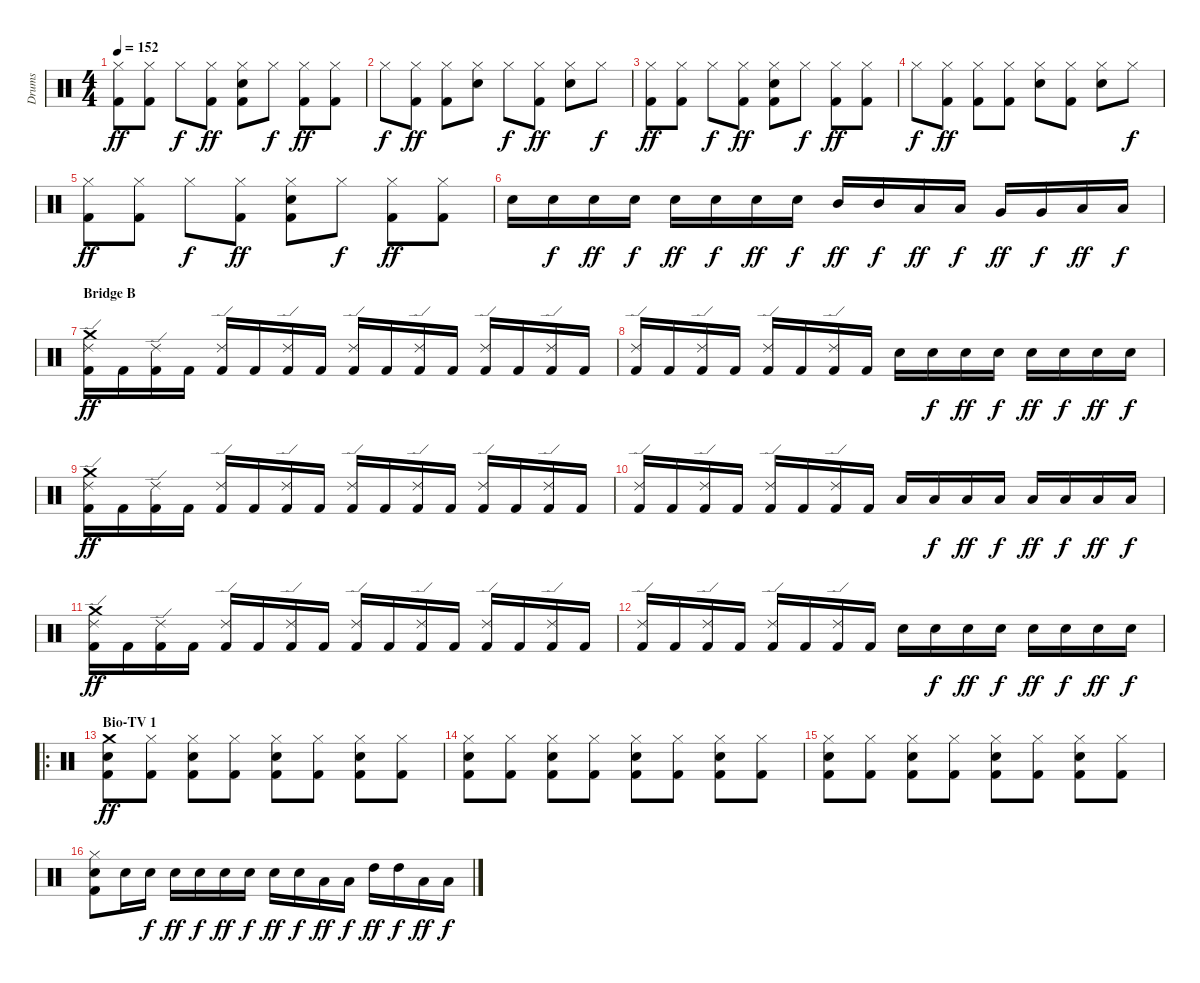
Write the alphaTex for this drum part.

\track ("Drums" "Drums") {instrument percussion}
\staff {score}
\articulation defaults
\ts (4 4)
\tempo 152
\clef neutral
\ks c
("Hi-Hat (closed)" "Kick (hit) 2").8{dy ff} ("Hi-Hat (closed)" "Kick (hit) 2").8 "Hi-Hat (closed)".8{dy f} ("Hi-Hat (closed)" "Kick (hit) 2").8{dy ff} ("Hi-Hat (closed)" "Electric Snare (hit)" "Kick (hit) 2").8 "Hi-Hat (closed)".8{dy f} ("Hi-Hat (closed)" "Kick (hit) 2").8{dy ff} ("Hi-Hat (closed)" "Kick (hit) 2").8 |
"Hi-Hat (closed)".8{dy f} ("Hi-Hat (closed)" "Kick (hit) 2").8{dy ff} ("Hi-Hat (closed)" "Kick (hit) 2").8 ("Hi-Hat (closed)" "Electric Snare (hit)").8 "Hi-Hat (closed)".8{dy f} ("Hi-Hat (closed)" "Kick (hit) 2").8{dy ff} ("Hi-Hat (closed)" "Electric Snare (hit)").8 "Hi-Hat (closed)".8{dy f} |
("Hi-Hat (closed)" "Kick (hit) 2").8{dy ff} ("Hi-Hat (closed)" "Kick (hit) 2").8 "Hi-Hat (closed)".8{dy f} ("Hi-Hat (closed)" "Kick (hit) 2").8{dy ff} ("Hi-Hat (closed)" "Electric Snare (hit)" "Kick (hit) 2").8 "Hi-Hat (closed)".8{dy f} ("Hi-Hat (closed)" "Kick (hit) 2").8{dy ff} ("Hi-Hat (closed)" "Kick (hit) 2").8 |
"Hi-Hat (closed)".8{dy f} ("Hi-Hat (closed)" "Kick (hit) 2").8{dy ff} ("Hi-Hat (closed)" "Kick (hit) 2").8 ("Hi-Hat (closed)" "Kick (hit) 2").8 ("Hi-Hat (closed)" "Electric Snare (hit)").8 ("Hi-Hat (closed)" "Kick (hit) 2").8 ("Hi-Hat (closed)" "Electric Snare (hit)").8 "Hi-Hat (closed)".8{dy f} |
("Hi-Hat (closed)" "Kick (hit) 2").8{dy ff} ("Hi-Hat (closed)" "Kick (hit) 2").8 "Hi-Hat (closed)".8{dy f} ("Hi-Hat (closed)" "Kick (hit) 2").8{dy ff} ("Hi-Hat (closed)" "Electric Snare (hit)" "Kick (hit) 2").8 "Hi-Hat (closed)".8{dy f} ("Hi-Hat (closed)" "Kick (hit) 2").8{dy ff} ("Hi-Hat (closed)" "Kick (hit) 2").8 |
"Electric Snare (hit)".16 "Electric Snare (hit)".16{dy f} "Electric Snare (hit)".16{dy ff} "Electric Snare (hit)".16{dy f} "Electric Snare (hit)".16{dy ff} "Electric Snare (hit)".16{dy f} "Electric Snare (hit)".16{dy ff} "Electric Snare (hit)".16{dy f} "Mid Tom (hit)".16{dy ff} "Mid Tom (hit)".16{dy f} "Low Tom (hit)".16{dy ff} "Low Tom (hit)".16{dy f} "Very Low Tom (hit)".16{dy ff} "Very Low Tom (hit)".16{dy f} "Low Floor Tom (hit)".16{dy ff} "Low Floor Tom (hit)".16{dy f} |
\section ("" "Bridge B")
("Ride (edge) 2" "Crash medium (hit)" "Kick (hit) 2").16{dy ff} "Kick (hit) 2".16 ("Ride (edge) 2" "Kick (hit) 2").16 "Kick (hit) 2".16 ("Ride (edge) 2" "Kick (hit) 2").16 "Kick (hit) 2".16 ("Ride (edge) 2" "Kick (hit) 2").16 "Kick (hit) 2".16 ("Ride (edge) 2" "Kick (hit) 2").16 "Kick (hit) 2".16 ("Ride (edge) 2" "Kick (hit) 2").16 "Kick (hit) 2".16 ("Ride (edge) 2" "Kick (hit) 2").16 "Kick (hit) 2".16 ("Ride (edge) 2" "Kick (hit) 2").16 "Kick (hit) 2".16 |
("Ride (edge) 2" "Kick (hit) 2").16 "Kick (hit) 2".16 ("Ride (edge) 2" "Kick (hit) 2").16 "Kick (hit) 2".16 ("Ride (edge) 2" "Kick (hit) 2").16 "Kick (hit) 2".16 ("Ride (edge) 2" "Kick (hit) 2").16 "Kick (hit) 2".16 "Electric Snare (hit)".16 "Electric Snare (hit)".16{dy f} "Electric Snare (hit)".16{dy ff} "Electric Snare (hit)".16{dy f} "Electric Snare (hit)".16{dy ff} "Electric Snare (hit)".16{dy f} "Electric Snare (hit)".16{dy ff} "Electric Snare (hit)".16{dy f} |
("Ride (edge) 2" "Crash medium (hit)" "Kick (hit) 2").16{dy ff} "Kick (hit) 2".16 ("Ride (edge) 2" "Kick (hit) 2").16 "Kick (hit) 2".16 ("Ride (edge) 2" "Kick (hit) 2").16 "Kick (hit) 2".16 ("Ride (edge) 2" "Kick (hit) 2").16 "Kick (hit) 2".16 ("Ride (edge) 2" "Kick (hit) 2").16 "Kick (hit) 2".16 ("Ride (edge) 2" "Kick (hit) 2").16 "Kick (hit) 2".16 ("Ride (edge) 2" "Kick (hit) 2").16 "Kick (hit) 2".16 ("Ride (edge) 2" "Kick (hit) 2").16 "Kick (hit) 2".16 |
("Ride (edge) 2" "Kick (hit) 2").16 "Kick (hit) 2".16 ("Ride (edge) 2" "Kick (hit) 2").16 "Kick (hit) 2".16 ("Ride (edge) 2" "Kick (hit) 2").16 "Kick (hit) 2".16 ("Ride (edge) 2" "Kick (hit) 2").16 "Kick (hit) 2".16 "Low Tom (hit)".16 "Low Tom (hit)".16{dy f} "Low Tom (hit)".16{dy ff} "Low Tom (hit)".16{dy f} "Low Tom (hit)".16{dy ff} "Low Tom (hit)".16{dy f} "Low Tom (hit)".16{dy ff} "Low Tom (hit)".16{dy f} |
("Ride (edge) 2" "Crash medium (hit)" "Kick (hit) 2").16{dy ff} "Kick (hit) 2".16 ("Ride (edge) 2" "Kick (hit) 2").16 "Kick (hit) 2".16 ("Ride (edge) 2" "Kick (hit) 2").16 "Kick (hit) 2".16 ("Ride (edge) 2" "Kick (hit) 2").16 "Kick (hit) 2".16 ("Ride (edge) 2" "Kick (hit) 2").16 "Kick (hit) 2".16 ("Ride (edge) 2" "Kick (hit) 2").16 "Kick (hit) 2".16 ("Ride (edge) 2" "Kick (hit) 2").16 "Kick (hit) 2".16 ("Ride (edge) 2" "Kick (hit) 2").16 "Kick (hit) 2".16 |
("Ride (edge) 2" "Kick (hit) 2").16 "Kick (hit) 2".16 ("Ride (edge) 2" "Kick (hit) 2").16 "Kick (hit) 2".16 ("Ride (edge) 2" "Kick (hit) 2").16 "Kick (hit) 2".16 ("Ride (edge) 2" "Kick (hit) 2").16 "Kick (hit) 2".16 "Electric Snare (hit)".16 "Electric Snare (hit)".16{dy f} "Electric Snare (hit)".16{dy ff} "Electric Snare (hit)".16{dy f} "Electric Snare (hit)".16{dy ff} "Electric Snare (hit)".16{dy f} "Electric Snare (hit)".16{dy ff} "Electric Snare (hit)".16{dy f} |
\ro
\section ("" "Bio-TV 1")
("Crash medium (hit)" "Electric Snare (hit)" "Kick (hit) 2").8{dy ff} ("Hi-Hat (closed)" "Kick (hit) 2").8 ("Hi-Hat (closed)" "Electric Snare (hit)" "Kick (hit) 2").8 ("Hi-Hat (closed)" "Kick (hit) 2").8 ("Hi-Hat (closed)" "Electric Snare (hit)" "Kick (hit) 2").8 ("Hi-Hat (closed)" "Kick (hit) 2").8 ("Hi-Hat (closed)" "Electric Snare (hit)" "Kick (hit) 2").8 ("Hi-Hat (closed)" "Kick (hit) 2").8 |
("Hi-Hat (closed)" "Electric Snare (hit)" "Kick (hit) 2").8 ("Hi-Hat (closed)" "Kick (hit) 2").8 ("Hi-Hat (closed)" "Electric Snare (hit)" "Kick (hit) 2").8 ("Hi-Hat (closed)" "Kick (hit) 2").8 ("Hi-Hat (closed)" "Electric Snare (hit)" "Kick (hit) 2").8 ("Hi-Hat (closed)" "Kick (hit) 2").8 ("Hi-Hat (closed)" "Electric Snare (hit)" "Kick (hit) 2").8 ("Hi-Hat (closed)" "Kick (hit) 2").8 |
("Hi-Hat (closed)" "Electric Snare (hit)" "Kick (hit) 2").8 ("Hi-Hat (closed)" "Kick (hit) 2").8 ("Hi-Hat (closed)" "Electric Snare (hit)" "Kick (hit) 2").8 ("Hi-Hat (closed)" "Kick (hit) 2").8 ("Hi-Hat (closed)" "Electric Snare (hit)" "Kick (hit) 2").8 ("Hi-Hat (closed)" "Kick (hit) 2").8 ("Hi-Hat (closed)" "Electric Snare (hit)" "Kick (hit) 2").8 ("Hi-Hat (closed)" "Kick (hit) 2").8 |
("Hi-Hat (closed)" "Electric Snare (hit)" "Kick (hit) 2").8 "Electric Snare (hit)".16 "Electric Snare (hit)".16{dy f} "Electric Snare (hit)".16{dy ff} "Electric Snare (hit)".16{dy f} "Electric Snare (hit)".16{dy ff} "Electric Snare (hit)".16{dy f} "Electric Snare (hit)".16{dy ff} "Electric Snare (hit)".16{dy f} "Low Tom (hit)".16{dy ff} "Low Tom (hit)".16{dy f} "High Tom (hit)".16{dy ff} "High Tom (hit)".16{dy f} "Low Tom (hit)".16{dy ff} "Low Tom (hit)".16{dy f}
